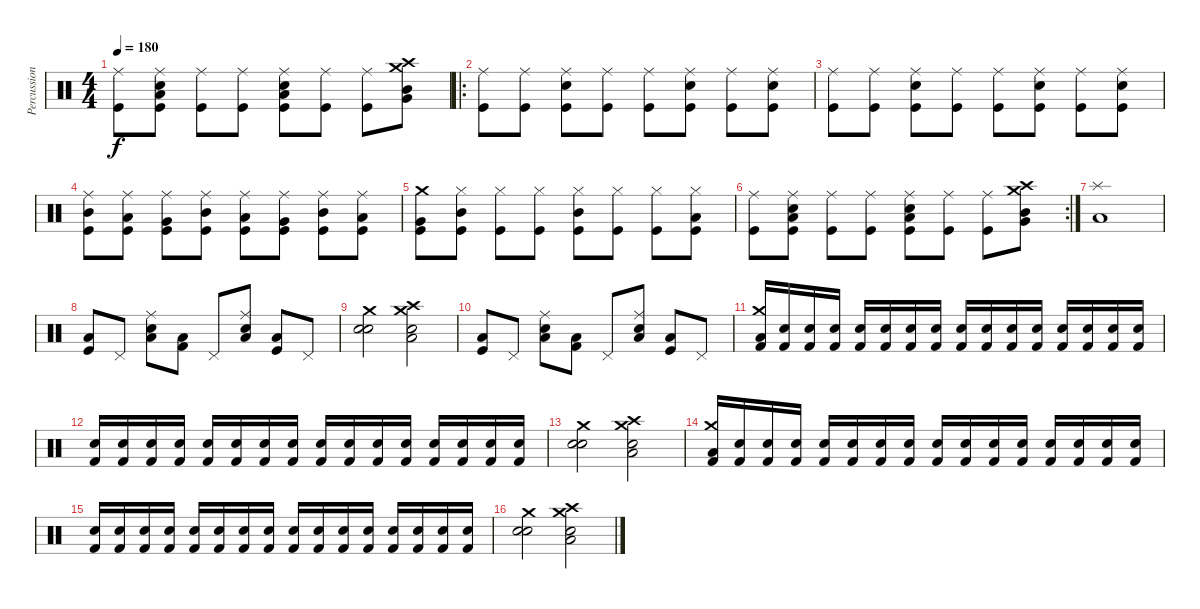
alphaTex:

\track ("Percussion" "Percussion") {instrument percussion}
\staff {score}
\articulation defaults
\ts (4 4)
\tempo 180
\clef neutral
\ks c
("Ride (middle)" "Kick (hit)").8{dy f} ("Ride (middle)" "Low Tom (hit)" "Electric Snare (hit)" "Kick (hit)").8 ("Ride (middle)" "Kick (hit)").8 ("Ride (middle)" "Kick (hit)").8 ("Ride (middle)" "Low Tom (hit)" "Electric Snare (hit)" "Kick (hit)").8 ("Ride (middle)" "Kick (hit)").8 ("Ride (middle)" "Kick (hit)").8 ("Crash high (hit)" "Crash medium (hit)" "Mid Tom (hit)" "Very Low Tom (hit)").8 |
\ro
("Ride (middle)" "Kick (hit)").8 ("Ride (middle)" "Kick (hit)").8 ("Ride (middle)" "Snare (hit) 2" "Kick (hit)").8 ("Ride (middle)" "Kick (hit)").8 ("Ride (middle)" "Kick (hit)").8 ("Ride (middle)" "Snare (hit) 2" "Kick (hit)").8 ("Ride (middle)" "Kick (hit)").8 ("Ride (middle)" "Snare (hit) 2" "Kick (hit)").8 |
("Ride (middle)" "Kick (hit)").8 ("Ride (middle)" "Kick (hit)").8 ("Ride (middle)" "Snare (hit) 2" "Kick (hit)").8 ("Ride (middle)" "Kick (hit)").8 ("Ride (middle)" "Kick (hit)").8 ("Ride (middle)" "Snare (hit) 2" "Kick (hit)").8 ("Ride (middle)" "Kick (hit)").8 ("Ride (middle)" "Snare (hit) 2" "Kick (hit)").8 |
("Ride (middle)" "Mid Tom (hit)" "Kick (hit)").8 ("Ride (middle)" "Low Tom (hit)" "Kick (hit)").8 ("Ride (middle)" "Very Low Tom (hit)" "Kick (hit)").8 ("Ride (middle)" "Mid Tom (hit)" "Kick (hit)").8 ("Ride (middle)" "Low Tom (hit)" "Kick (hit)").8 ("Ride (middle)" "Very Low Tom (hit)" "Kick (hit)").8 ("Ride (middle)" "Mid Tom (hit)" "Kick (hit)").8 ("Ride (middle)" "Low Tom (hit)" "Kick (hit)").8 |
("Crash medium (hit)" "Very Low Tom (hit)" "Kick (hit)").8 ("Hi-Hat (closed)" "Mid Tom (hit)" "Kick (hit)").8 ("Hi-Hat (closed)" "Kick (hit)").8 ("Hi-Hat (closed)" "Kick (hit)").8 ("Hi-Hat (closed)" "Mid Tom (hit)" "Kick (hit)").8 ("Hi-Hat (closed)" "Kick (hit)").8 ("Hi-Hat (closed)" "Kick (hit)").8 ("Hi-Hat (closed)" "Low Tom (hit)" "Kick (hit)").8 |
\rc 2
("Ride (middle)" "Kick (hit)").8 ("Ride (middle)" "Low Tom (hit)" "Electric Snare (hit)" "Kick (hit)").8 ("Ride (middle)" "Kick (hit)").8 ("Ride (middle)" "Kick (hit)").8 ("Ride (middle)" "Low Tom (hit)" "Electric Snare (hit)" "Kick (hit)").8 ("Ride (middle)" "Kick (hit)").8 ("Ride (middle)" "Kick (hit)").8 ("Crash high (hit)" "Crash medium (hit)" "Mid Tom (hit)" "Very Low Tom (hit)").8 |
("Splash (hit)" "Low Tom (hit)").1 |
("Low Tom (hit)" "Kick (hit)").8 "Pedal Hi-Hat (hit)".8 ("Ride (middle)" "Electric Snare (hit)" "Low Tom (hit)").8 ("Low Tom (hit)" "Kick (hit) 2").8 "Pedal Hi-Hat (hit)".8 ("Ride (middle)" "Electric Snare (hit)" "Low Tom (hit)").8 ("Low Tom (hit)" "Kick (hit)").8 "Pedal Hi-Hat (hit)".8 |
("Crash medium (hit)" "Electric Snare (hit)" "Snare (hit) 2").2 ("Crash medium (hit)" "Crash high (hit)" "Low Tom (hit)" "Electric Snare (hit)").2 |
("Low Tom (hit)" "Kick (hit)").8 "Pedal Hi-Hat (hit)".8 ("Ride (middle)" "Electric Snare (hit)" "Low Tom (hit)").8 ("Low Tom (hit)" "Kick (hit) 2").8 "Pedal Hi-Hat (hit)".8 ("Ride (middle)" "Electric Snare (hit)" "Low Tom (hit)").8 ("Low Tom (hit)" "Kick (hit)").8 "Pedal Hi-Hat (hit)".8 |
("Crash medium (hit)" "Low Tom (hit)" "Kick (hit) 2").16 ("Electric Snare (hit)" "Kick (hit) 2").16 ("Snare (hit) 2" "Kick (hit) 2").16 ("Electric Snare (hit)" "Kick (hit) 2").16 ("Snare (hit) 2" "Kick (hit) 2").16 ("Electric Snare (hit)" "Kick (hit) 2").16 ("Snare (hit) 2" "Kick (hit) 2").16 ("Electric Snare (hit)" "Kick (hit) 2").16 ("Snare (hit) 2" "Kick (hit) 2").16 ("Electric Snare (hit)" "Kick (hit) 2").16 ("Snare (hit) 2" "Kick (hit) 2").16 ("Electric Snare (hit)" "Kick (hit) 2").16 ("Snare (hit) 2" "Kick (hit) 2").16 ("Electric Snare (hit)" "Kick (hit) 2").16 ("Snare (hit) 2" "Kick (hit) 2").16 ("Electric Snare (hit)" "Kick (hit) 2").16 |
("Snare (hit) 2" "Kick (hit) 2").16 ("Electric Snare (hit)" "Kick (hit) 2").16 ("Snare (hit) 2" "Kick (hit) 2").16 ("Electric Snare (hit)" "Kick (hit) 2").16 ("Snare (hit) 2" "Kick (hit) 2").16 ("Electric Snare (hit)" "Kick (hit) 2").16 ("Snare (hit) 2" "Kick (hit) 2").16 ("Electric Snare (hit)" "Kick (hit) 2").16 ("Snare (hit) 2" "Kick (hit) 2").16 ("Electric Snare (hit)" "Kick (hit) 2").16 ("Snare (hit) 2" "Kick (hit) 2").16 ("Electric Snare (hit)" "Kick (hit) 2").16 ("Snare (hit) 2" "Kick (hit) 2").16 ("Electric Snare (hit)" "Kick (hit) 2").16 ("Snare (hit) 2" "Kick (hit) 2").16 ("Electric Snare (hit)" "Kick (hit) 2").16 |
("Crash medium (hit)" "Electric Snare (hit)" "Snare (hit) 2").2 ("Crash medium (hit)" "Crash high (hit)" "Low Tom (hit)" "Electric Snare (hit)").2 |
("Crash medium (hit)" "Low Tom (hit)" "Kick (hit) 2").16 ("Electric Snare (hit)" "Kick (hit) 2").16 ("Snare (hit) 2" "Kick (hit) 2").16 ("Electric Snare (hit)" "Kick (hit) 2").16 ("Snare (hit) 2" "Kick (hit) 2").16 ("Electric Snare (hit)" "Kick (hit) 2").16 ("Snare (hit) 2" "Kick (hit) 2").16 ("Electric Snare (hit)" "Kick (hit) 2").16 ("Snare (hit) 2" "Kick (hit) 2").16 ("Electric Snare (hit)" "Kick (hit) 2").16 ("Snare (hit) 2" "Kick (hit) 2").16 ("Electric Snare (hit)" "Kick (hit) 2").16 ("Snare (hit) 2" "Kick (hit) 2").16 ("Electric Snare (hit)" "Kick (hit) 2").16 ("Snare (hit) 2" "Kick (hit) 2").16 ("Electric Snare (hit)" "Kick (hit) 2").16 |
("Snare (hit) 2" "Kick (hit) 2").16 ("Electric Snare (hit)" "Kick (hit) 2").16 ("Snare (hit) 2" "Kick (hit) 2").16 ("Electric Snare (hit)" "Kick (hit) 2").16 ("Snare (hit) 2" "Kick (hit) 2").16 ("Electric Snare (hit)" "Kick (hit) 2").16 ("Snare (hit) 2" "Kick (hit) 2").16 ("Electric Snare (hit)" "Kick (hit) 2").16 ("Snare (hit) 2" "Kick (hit) 2").16 ("Electric Snare (hit)" "Kick (hit) 2").16 ("Snare (hit) 2" "Kick (hit) 2").16 ("Electric Snare (hit)" "Kick (hit) 2").16 ("Snare (hit) 2" "Kick (hit) 2").16 ("Electric Snare (hit)" "Kick (hit) 2").16 ("Snare (hit) 2" "Kick (hit) 2").16 ("Electric Snare (hit)" "Kick (hit) 2").16 |
("Crash medium (hit)" "Electric Snare (hit)" "Snare (hit) 2").2 ("Crash medium (hit)" "Crash high (hit)" "Low Tom (hit)" "Electric Snare (hit)").2
